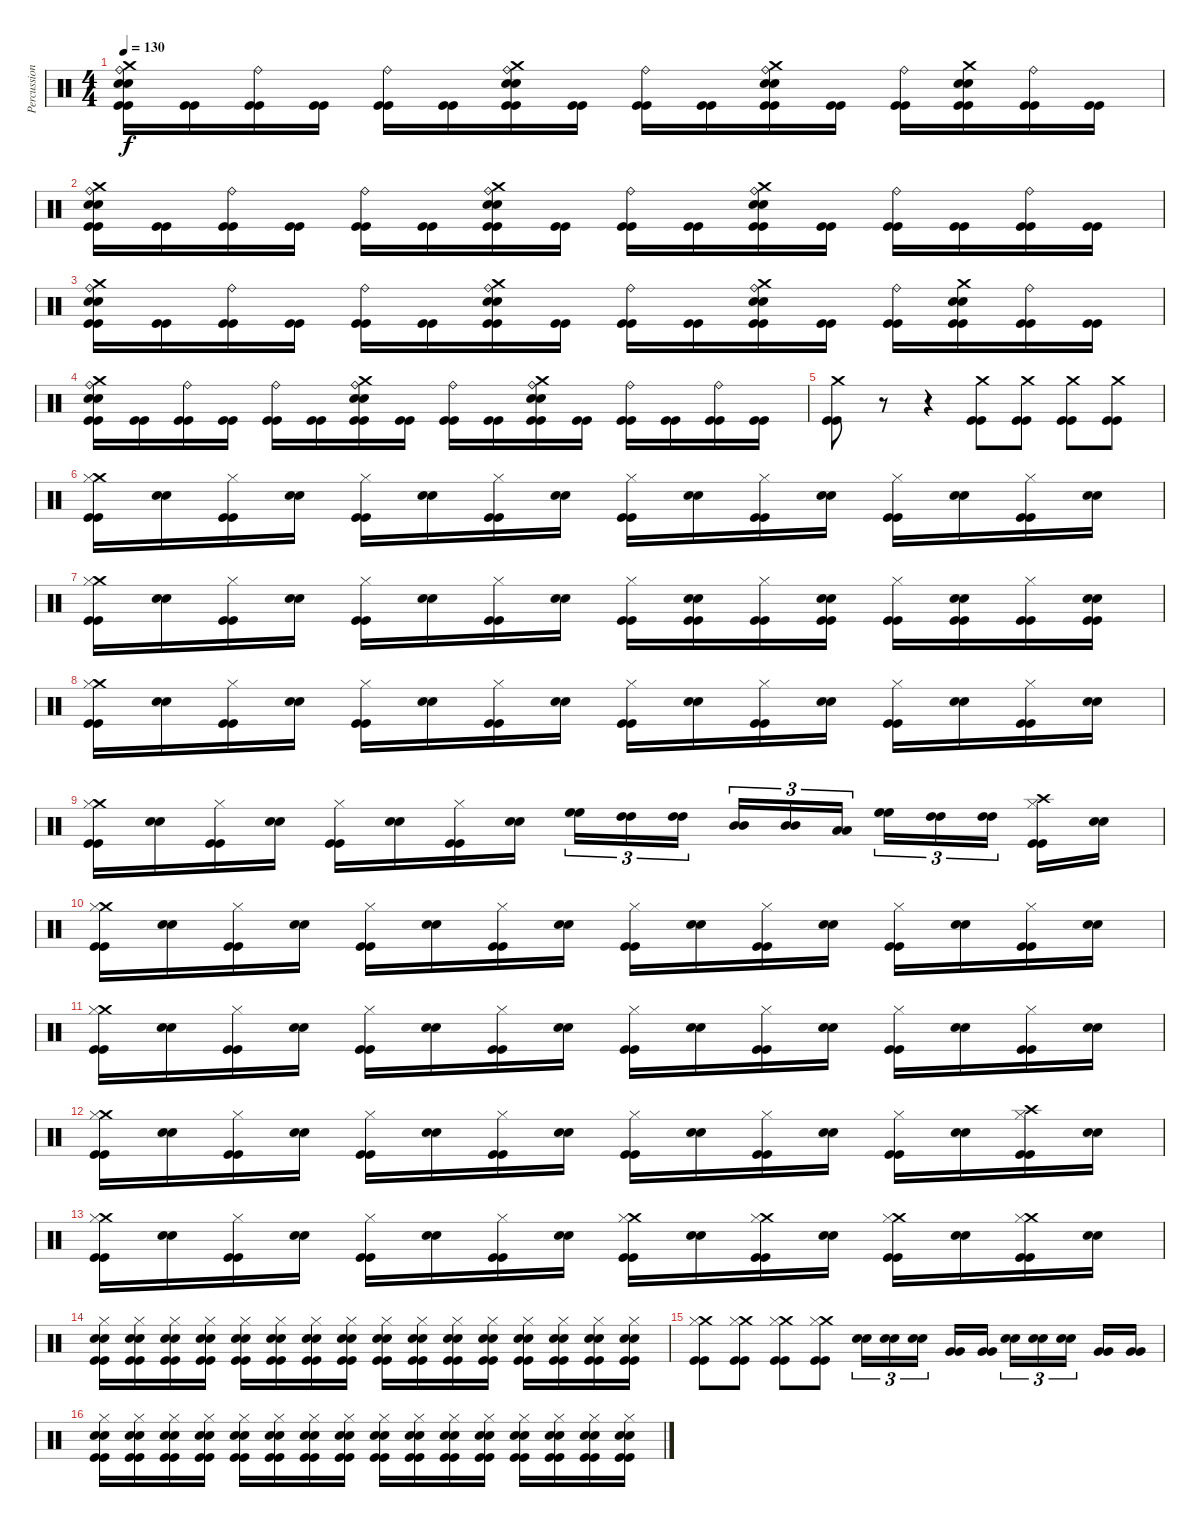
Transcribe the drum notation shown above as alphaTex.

\track ("Percussion" "Percussion") {instrument percussion}
\staff {score}
\articulation defaults
\ts (4 4)
\tempo 130
\clef neutral
\ks c
("Crash medium (hit)" "Snare (hit) 2" "Snare (hit) 2" "Ride (bell)" "Kick (hit)" "Kick (hit)").16{dy f} ("Kick (hit)" "Kick (hit)").16 ("Ride (bell)" "Kick (hit)" "Kick (hit)").16 ("Kick (hit)" "Kick (hit)").16 ("Ride (bell)" "Kick (hit)" "Kick (hit)").16 ("Kick (hit)" "Kick (hit)").16 ("Crash medium (hit)" "Snare (hit) 2" "Snare (hit) 2" "Ride (bell)" "Kick (hit)" "Kick (hit)").16 ("Kick (hit)" "Kick (hit)").16 ("Ride (bell)" "Kick (hit)" "Kick (hit)").16 ("Kick (hit)" "Kick (hit)").16 ("Crash medium (hit)" "Snare (hit) 2" "Snare (hit) 2" "Ride (bell)" "Kick (hit)" "Kick (hit)").16 ("Kick (hit)" "Kick (hit)").16 ("Ride (bell)" "Kick (hit)" "Kick (hit)").16 ("Crash medium (hit)" "Snare (hit) 2" "Snare (hit) 2" "Kick (hit)" "Kick (hit)").16 ("Ride (bell)" "Kick (hit)" "Kick (hit)").16 ("Kick (hit)" "Kick (hit)").16 |
("Crash medium (hit)" "Snare (hit) 2" "Snare (hit) 2" "Ride (bell)" "Kick (hit)" "Kick (hit)").16 ("Kick (hit)" "Kick (hit)").16 ("Ride (bell)" "Kick (hit)" "Kick (hit)").16 ("Kick (hit)" "Kick (hit)").16 ("Ride (bell)" "Kick (hit)" "Kick (hit)").16 ("Kick (hit)" "Kick (hit)").16 ("Crash medium (hit)" "Snare (hit) 2" "Snare (hit) 2" "Ride (bell)" "Kick (hit)" "Kick (hit)").16 ("Kick (hit)" "Kick (hit)").16 ("Ride (bell)" "Kick (hit)" "Kick (hit)").16 ("Kick (hit)" "Kick (hit)").16 ("Crash medium (hit)" "Snare (hit) 2" "Snare (hit) 2" "Ride (bell)" "Kick (hit)" "Kick (hit)").16 ("Kick (hit)" "Kick (hit)").16 ("Ride (bell)" "Kick (hit)" "Kick (hit)").16 ("Kick (hit)" "Kick (hit)").16 ("Ride (bell)" "Kick (hit)" "Kick (hit)").16 ("Kick (hit)" "Kick (hit)").16 |
("Crash medium (hit)" "Snare (hit) 2" "Snare (hit) 2" "Ride (bell)" "Kick (hit)" "Kick (hit)").16 ("Kick (hit)" "Kick (hit)").16 ("Ride (bell)" "Kick (hit)" "Kick (hit)").16 ("Kick (hit)" "Kick (hit)").16 ("Ride (bell)" "Kick (hit)" "Kick (hit)").16 ("Kick (hit)" "Kick (hit)").16 ("Crash medium (hit)" "Snare (hit) 2" "Snare (hit) 2" "Ride (bell)" "Kick (hit)" "Kick (hit)").16 ("Kick (hit)" "Kick (hit)").16 ("Ride (bell)" "Kick (hit)" "Kick (hit)").16 ("Kick (hit)" "Kick (hit)").16 ("Crash medium (hit)" "Snare (hit) 2" "Snare (hit) 2" "Ride (bell)" "Kick (hit)" "Kick (hit)").16 ("Kick (hit)" "Kick (hit)").16 ("Ride (bell)" "Kick (hit)" "Kick (hit)").16 ("Crash medium (hit)" "Snare (hit) 2" "Snare (hit) 2" "Kick (hit)" "Kick (hit)").16 ("Ride (bell)" "Kick (hit)" "Kick (hit)").16 ("Kick (hit)" "Kick (hit)").16 |
("Crash medium (hit)" "Snare (hit) 2" "Snare (hit) 2" "Ride (bell)" "Kick (hit)" "Kick (hit)").16 ("Kick (hit)" "Kick (hit)").16 ("Ride (bell)" "Kick (hit)" "Kick (hit)").16 ("Kick (hit)" "Kick (hit)").16 ("Ride (bell)" "Kick (hit)" "Kick (hit)").16 ("Kick (hit)" "Kick (hit)").16 ("Crash medium (hit)" "Snare (hit) 2" "Snare (hit) 2" "Ride (bell)" "Kick (hit)" "Kick (hit)").16 ("Kick (hit)" "Kick (hit)").16 ("Ride (bell)" "Kick (hit)" "Kick (hit)").16 ("Kick (hit)" "Kick (hit)").16 ("Crash medium (hit)" "Snare (hit) 2" "Snare (hit) 2" "Ride (bell)" "Kick (hit)" "Kick (hit)").16 ("Kick (hit)" "Kick (hit)").16 ("Ride (bell)" "Kick (hit)" "Kick (hit)").16 ("Kick (hit)" "Kick (hit)").16 ("Ride (bell)" "Kick (hit)" "Kick (hit)").16 ("Kick (hit)" "Kick (hit)").16 |
("Crash medium (hit)" "Kick (hit)" "Kick (hit)").8 r.8 r.4 ("Crash medium (hit)" "Kick (hit)" "Kick (hit)").8 ("Crash medium (hit)" "Kick (hit)" "Kick (hit)").8 ("Crash medium (hit)" "Kick (hit)" "Kick (hit)").8 ("Crash medium (hit)" "Kick (hit)" "Kick (hit)").8 |
("Crash medium (hit)" "Hi-Hat (closed)" "Kick (hit)" "Kick (hit)").16 ("Snare (hit) 2" "Snare (hit) 2").16 ("Hi-Hat (closed)" "Kick (hit)" "Kick (hit)").16 ("Snare (hit) 2" "Snare (hit) 2").16 ("Hi-Hat (closed)" "Kick (hit)" "Kick (hit)").16 ("Snare (hit) 2" "Snare (hit) 2").16 ("Hi-Hat (closed)" "Kick (hit)" "Kick (hit)").16 ("Snare (hit) 2" "Snare (hit) 2").16 ("Hi-Hat (closed)" "Kick (hit)" "Kick (hit)").16 ("Snare (hit) 2" "Snare (hit) 2").16 ("Hi-Hat (closed)" "Kick (hit)" "Kick (hit)").16 ("Snare (hit) 2" "Snare (hit) 2").16 ("Hi-Hat (closed)" "Kick (hit)" "Kick (hit)").16 ("Snare (hit) 2" "Snare (hit) 2").16 ("Hi-Hat (closed)" "Kick (hit)" "Kick (hit)").16 ("Snare (hit) 2" "Snare (hit) 2").16 |
("Crash medium (hit)" "Hi-Hat (closed)" "Kick (hit)" "Kick (hit)").16 ("Snare (hit) 2" "Snare (hit) 2").16 ("Hi-Hat (closed)" "Kick (hit)" "Kick (hit)").16 ("Snare (hit) 2" "Snare (hit) 2").16 ("Hi-Hat (closed)" "Kick (hit)" "Kick (hit)").16 ("Snare (hit) 2" "Snare (hit) 2").16 ("Hi-Hat (closed)" "Kick (hit)" "Kick (hit)").16 ("Snare (hit) 2" "Snare (hit) 2").16 ("Hi-Hat (closed)" "Kick (hit)" "Kick (hit)").16 ("Snare (hit) 2" "Snare (hit) 2" "Kick (hit)" "Kick (hit)").16 ("Hi-Hat (closed)" "Kick (hit)" "Kick (hit)").16 ("Snare (hit) 2" "Snare (hit) 2" "Kick (hit)" "Kick (hit)").16 ("Hi-Hat (closed)" "Kick (hit)" "Kick (hit)").16 ("Snare (hit) 2" "Snare (hit) 2" "Kick (hit)" "Kick (hit)").16 ("Hi-Hat (closed)" "Kick (hit)" "Kick (hit)").16 ("Snare (hit) 2" "Snare (hit) 2" "Kick (hit)" "Kick (hit)").16 |
("Crash medium (hit)" "Hi-Hat (closed)" "Kick (hit)" "Kick (hit)").16 ("Snare (hit) 2" "Snare (hit) 2").16 ("Hi-Hat (closed)" "Kick (hit)" "Kick (hit)").16 ("Snare (hit) 2" "Snare (hit) 2").16 ("Hi-Hat (closed)" "Kick (hit)" "Kick (hit)").16 ("Snare (hit) 2" "Snare (hit) 2").16 ("Hi-Hat (closed)" "Kick (hit)" "Kick (hit)").16 ("Snare (hit) 2" "Snare (hit) 2").16 ("Hi-Hat (closed)" "Kick (hit)" "Kick (hit)").16 ("Snare (hit) 2" "Snare (hit) 2").16 ("Hi-Hat (closed)" "Kick (hit)" "Kick (hit)").16 ("Snare (hit) 2" "Snare (hit) 2").16 ("Hi-Hat (closed)" "Kick (hit)" "Kick (hit)").16 ("Snare (hit) 2" "Snare (hit) 2").16 ("Hi-Hat (closed)" "Kick (hit)" "Kick (hit)").16 ("Snare (hit) 2" "Snare (hit) 2").16 |
("Crash medium (hit)" "Hi-Hat (closed)" "Kick (hit)" "Kick (hit)").16 ("Snare (hit) 2" "Snare (hit) 2").16 ("Hi-Hat (closed)" "Kick (hit)" "Kick (hit)").16 ("Snare (hit) 2" "Snare (hit) 2").16 ("Hi-Hat (closed)" "Kick (hit)" "Kick (hit)").16 ("Snare (hit) 2" "Snare (hit) 2").16 ("Hi-Hat (closed)" "Kick (hit)" "Kick (hit)").16 ("Snare (hit) 2" "Snare (hit) 2").16 ("High Floor Tom (hit)" "High Floor Tom (hit)").16{tu (3 2)} ("High Tom (hit)" "High Tom (hit)").16{tu (3 2)} ("High Tom (hit)" "High Tom (hit)").16{tu (3 2)} ("Mid Tom (hit)" "Mid Tom (hit)").16{tu (3 2)} ("Mid Tom (hit)" "Mid Tom (hit)").16{tu (3 2)} ("Low Tom (hit)" "Low Tom (hit)").16{tu (3 2)} ("High Floor Tom (hit)" "High Floor Tom (hit)").16{tu (3 2)} ("High Tom (hit)" "High Tom (hit)").16{tu (3 2)} ("High Tom (hit)" "High Tom (hit)").16{tu (3 2)} ("Crash high (hit)" "Hi-Hat (closed)" "Kick (hit)" "Kick (hit)").16 ("Snare (hit) 2" "Snare (hit) 2").16 |
("Crash medium (hit)" "Hi-Hat (closed)" "Kick (hit)" "Kick (hit)").16 ("Snare (hit) 2" "Snare (hit) 2").16 ("Hi-Hat (closed)" "Kick (hit)" "Kick (hit)").16 ("Snare (hit) 2" "Snare (hit) 2").16 ("Hi-Hat (closed)" "Kick (hit)" "Kick (hit)").16 ("Snare (hit) 2" "Snare (hit) 2").16 ("Hi-Hat (closed)" "Kick (hit)" "Kick (hit)").16 ("Snare (hit) 2" "Snare (hit) 2").16 ("Hi-Hat (closed)" "Kick (hit)" "Kick (hit)").16 ("Snare (hit) 2" "Snare (hit) 2").16 ("Hi-Hat (closed)" "Kick (hit)" "Kick (hit)").16 ("Snare (hit) 2" "Snare (hit) 2").16 ("Hi-Hat (closed)" "Kick (hit)" "Kick (hit)").16 ("Snare (hit) 2" "Snare (hit) 2").16 ("Hi-Hat (closed)" "Kick (hit)" "Kick (hit)").16 ("Snare (hit) 2" "Snare (hit) 2").16 |
("Crash medium (hit)" "Hi-Hat (closed)" "Kick (hit)" "Kick (hit)").16 ("Snare (hit) 2" "Snare (hit) 2").16 ("Hi-Hat (closed)" "Kick (hit)" "Kick (hit)").16 ("Snare (hit) 2" "Snare (hit) 2").16 ("Hi-Hat (closed)" "Kick (hit)" "Kick (hit)").16 ("Snare (hit) 2" "Snare (hit) 2").16 ("Hi-Hat (closed)" "Kick (hit)" "Kick (hit)").16 ("Snare (hit) 2" "Snare (hit) 2").16 ("Hi-Hat (closed)" "Kick (hit)" "Kick (hit)").16 ("Snare (hit) 2" "Snare (hit) 2").16 ("Hi-Hat (closed)" "Kick (hit)" "Kick (hit)").16 ("Snare (hit) 2" "Snare (hit) 2").16 ("Hi-Hat (closed)" "Kick (hit)" "Kick (hit)").16 ("Snare (hit) 2" "Snare (hit) 2").16 ("Hi-Hat (closed)" "Kick (hit)" "Kick (hit)").16 ("Snare (hit) 2" "Snare (hit) 2").16 |
("Crash medium (hit)" "Hi-Hat (closed)" "Kick (hit)" "Kick (hit)").16 ("Snare (hit) 2" "Snare (hit) 2").16 ("Hi-Hat (closed)" "Kick (hit)" "Kick (hit)").16 ("Snare (hit) 2" "Snare (hit) 2").16 ("Hi-Hat (closed)" "Kick (hit)" "Kick (hit)").16 ("Snare (hit) 2" "Snare (hit) 2").16 ("Hi-Hat (closed)" "Kick (hit)" "Kick (hit)").16 ("Snare (hit) 2" "Snare (hit) 2").16 ("Hi-Hat (closed)" "Kick (hit)" "Kick (hit)").16 ("Snare (hit) 2" "Snare (hit) 2").16 ("Hi-Hat (closed)" "Kick (hit)" "Kick (hit)").16 ("Snare (hit) 2" "Snare (hit) 2").16 ("Hi-Hat (closed)" "Kick (hit)" "Kick (hit)").16 ("Snare (hit) 2" "Snare (hit) 2").16 ("Crash high (hit)" "Hi-Hat (closed)" "Kick (hit)" "Kick (hit)").16 ("Snare (hit) 2" "Snare (hit) 2").16 |
("Crash medium (hit)" "Hi-Hat (closed)" "Kick (hit)" "Kick (hit)").16 ("Snare (hit) 2" "Snare (hit) 2").16 ("Hi-Hat (closed)" "Kick (hit)" "Kick (hit)").16 ("Snare (hit) 2" "Snare (hit) 2").16 ("Hi-Hat (closed)" "Kick (hit)" "Kick (hit)").16 ("Snare (hit) 2" "Snare (hit) 2").16 ("Hi-Hat (closed)" "Kick (hit)" "Kick (hit)").16 ("Snare (hit) 2" "Snare (hit) 2").16 ("Crash medium (hit)" "Hi-Hat (closed)" "Kick (hit)" "Kick (hit)").16 ("Snare (hit) 2" "Snare (hit) 2").16 ("Crash medium (hit)" "Hi-Hat (closed)" "Kick (hit)" "Kick (hit)").16 ("Snare (hit) 2" "Snare (hit) 2").16 ("Crash medium (hit)" "Hi-Hat (closed)" "Kick (hit)" "Kick (hit)").16 ("Snare (hit) 2" "Snare (hit) 2").16 ("Crash medium (hit)" "Hi-Hat (closed)" "Kick (hit)" "Kick (hit)").16 ("Snare (hit) 2" "Snare (hit) 2").16 |
("Snare (hit) 2" "Snare (hit) 2" "Hi-Hat (closed)" "Kick (hit)" "Kick (hit)").16 ("Snare (hit) 2" "Snare (hit) 2" "Hi-Hat (closed)" "Kick (hit)" "Kick (hit)").16 ("Snare (hit) 2" "Snare (hit) 2" "Hi-Hat (closed)" "Kick (hit)" "Kick (hit)").16 ("Snare (hit) 2" "Snare (hit) 2" "Hi-Hat (closed)" "Kick (hit)" "Kick (hit)").16 ("Snare (hit) 2" "Snare (hit) 2" "Hi-Hat (closed)" "Kick (hit)" "Kick (hit)").16 ("Snare (hit) 2" "Snare (hit) 2" "Hi-Hat (closed)" "Kick (hit)" "Kick (hit)").16 ("Snare (hit) 2" "Snare (hit) 2" "Hi-Hat (closed)" "Kick (hit)" "Kick (hit)").16 ("Snare (hit) 2" "Snare (hit) 2" "Hi-Hat (closed)" "Kick (hit)" "Kick (hit)").16 ("Snare (hit) 2" "Snare (hit) 2" "Hi-Hat (closed)" "Kick (hit)" "Kick (hit)").16 ("Snare (hit) 2" "Snare (hit) 2" "Hi-Hat (closed)" "Kick (hit)" "Kick (hit)").16 ("Snare (hit) 2" "Snare (hit) 2" "Hi-Hat (closed)" "Kick (hit)" "Kick (hit)").16 ("Snare (hit) 2" "Snare (hit) 2" "Hi-Hat (closed)" "Kick (hit)" "Kick (hit)").16 ("Snare (hit) 2" "Snare (hit) 2" "Hi-Hat (closed)" "Kick (hit)" "Kick (hit)").16 ("Snare (hit) 2" "Snare (hit) 2" "Hi-Hat (closed)" "Kick (hit)" "Kick (hit)").16 ("Snare (hit) 2" "Snare (hit) 2" "Hi-Hat (closed)" "Kick (hit)" "Kick (hit)").16 ("Snare (hit) 2" "Snare (hit) 2" "Hi-Hat (closed)" "Kick (hit)" "Kick (hit)").16 |
("Crash medium (hit)" "Hi-Hat (closed)" "Kick (hit)" "Kick (hit)").8 ("Crash medium (hit)" "Hi-Hat (closed)" "Kick (hit)" "Kick (hit)").8 ("Crash medium (hit)" "Hi-Hat (closed)" "Kick (hit)" "Kick (hit)").8 ("Crash medium (hit)" "Hi-Hat (closed)" "Kick (hit)" "Kick (hit)").8 ("Snare (hit) 2" "Snare (hit) 2").16{tu (3 2)} ("Snare (hit) 2" "Snare (hit) 2").16{tu (3 2)} ("Snare (hit) 2" "Snare (hit) 2").16{tu (3 2)} ("Very Low Tom (hit)" "Very Low Tom (hit)").16 ("Very Low Tom (hit)" "Very Low Tom (hit)").16 ("Snare (hit) 2" "Snare (hit) 2").16{tu (3 2)} ("Snare (hit) 2" "Snare (hit) 2").16{tu (3 2)} ("Snare (hit) 2" "Snare (hit) 2").16{tu (3 2)} ("Very Low Tom (hit)" "Very Low Tom (hit)").16 ("Very Low Tom (hit)" "Very Low Tom (hit)").16 |
("Snare (hit) 2" "Snare (hit) 2" "Hi-Hat (closed)" "Kick (hit)" "Kick (hit)").16 ("Snare (hit) 2" "Snare (hit) 2" "Hi-Hat (closed)" "Kick (hit)" "Kick (hit)").16 ("Snare (hit) 2" "Snare (hit) 2" "Hi-Hat (closed)" "Kick (hit)" "Kick (hit)").16 ("Snare (hit) 2" "Snare (hit) 2" "Hi-Hat (closed)" "Kick (hit)" "Kick (hit)").16 ("Snare (hit) 2" "Snare (hit) 2" "Hi-Hat (closed)" "Kick (hit)" "Kick (hit)").16 ("Snare (hit) 2" "Snare (hit) 2" "Hi-Hat (closed)" "Kick (hit)" "Kick (hit)").16 ("Snare (hit) 2" "Snare (hit) 2" "Hi-Hat (closed)" "Kick (hit)" "Kick (hit)").16 ("Snare (hit) 2" "Snare (hit) 2" "Hi-Hat (closed)" "Kick (hit)" "Kick (hit)").16 ("Snare (hit) 2" "Snare (hit) 2" "Hi-Hat (closed)" "Kick (hit)" "Kick (hit)").16 ("Snare (hit) 2" "Snare (hit) 2" "Hi-Hat (closed)" "Kick (hit)" "Kick (hit)").16 ("Snare (hit) 2" "Snare (hit) 2" "Hi-Hat (closed)" "Kick (hit)" "Kick (hit)").16 ("Snare (hit) 2" "Snare (hit) 2" "Hi-Hat (closed)" "Kick (hit)" "Kick (hit)").16 ("Snare (hit) 2" "Snare (hit) 2" "Hi-Hat (closed)" "Kick (hit)" "Kick (hit)").16 ("Snare (hit) 2" "Snare (hit) 2" "Hi-Hat (closed)" "Kick (hit)" "Kick (hit)").16 ("Snare (hit) 2" "Snare (hit) 2" "Hi-Hat (closed)" "Kick (hit)" "Kick (hit)").16 ("Snare (hit) 2" "Snare (hit) 2" "Hi-Hat (closed)" "Kick (hit)" "Kick (hit)").16
